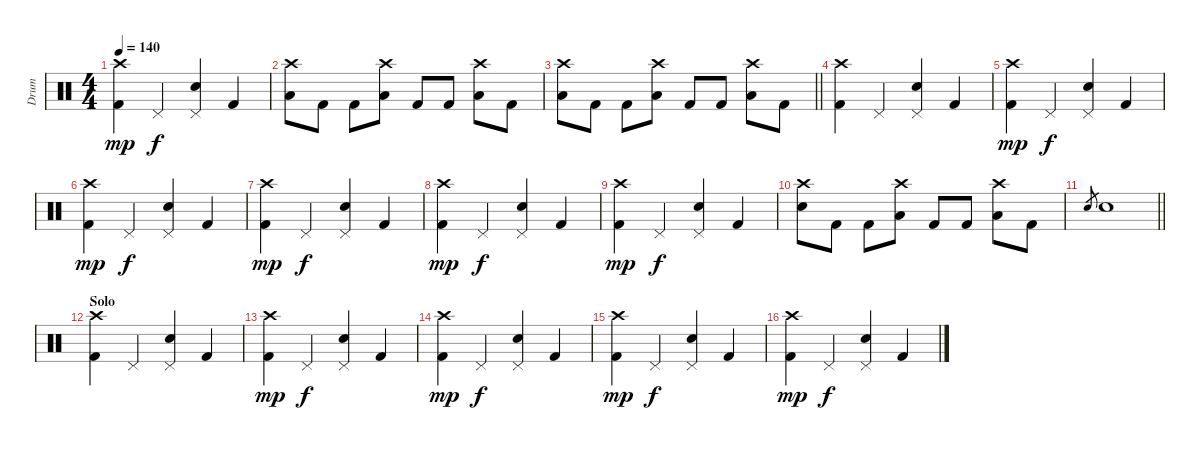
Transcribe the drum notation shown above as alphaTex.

\track ("Drum" "Drum") {instrument percussion}
\staff {score}
\articulation defaults
\ts (4 4)
\tempo 140
\clef neutral
\ks c
("Kick (hit) 2" "Crash high (hit)").4{dy mp} "Pedal Hi-Hat (hit)".4{dy f} ("Electric Snare (hit)" "Pedal Hi-Hat (hit)").4 "Kick (hit) 2".4 |
("Low Tom (hit)" "Crash high (hit)").8 "Kick (hit) 2".8 "Kick (hit) 2".8 ("Low Tom (hit)" "Crash high (hit)").8 "Kick (hit) 2".8 "Kick (hit) 2".8 ("Low Tom (hit)" "Crash high (hit)").8 "Kick (hit) 2".8 |
\barLineRight lightlight
("Low Tom (hit)" "Crash high (hit)").8 "Kick (hit) 2".8 "Kick (hit) 2".8 ("Low Tom (hit)" "Crash high (hit)").8 "Kick (hit) 2".8 "Kick (hit) 2".8 ("Low Tom (hit)" "Crash high (hit)").8 "Kick (hit) 2".8 |
("Kick (hit) 2" "Crash high (hit)").4 "Pedal Hi-Hat (hit)".4 ("Electric Snare (hit)" "Pedal Hi-Hat (hit)").4 "Kick (hit) 2".4 |
("Kick (hit) 2" "Crash high (hit)").4{dy mp} "Pedal Hi-Hat (hit)".4{dy f} ("Electric Snare (hit)" "Pedal Hi-Hat (hit)").4 "Kick (hit) 2".4 |
("Kick (hit) 2" "Crash high (hit)").4{dy mp} "Pedal Hi-Hat (hit)".4{dy f} ("Electric Snare (hit)" "Pedal Hi-Hat (hit)").4 "Kick (hit) 2".4 |
("Kick (hit) 2" "Crash high (hit)").4{dy mp} "Pedal Hi-Hat (hit)".4{dy f} ("Electric Snare (hit)" "Pedal Hi-Hat (hit)").4 "Kick (hit) 2".4 |
("Kick (hit) 2" "Crash high (hit)").4{dy mp} "Pedal Hi-Hat (hit)".4{dy f} ("Electric Snare (hit)" "Pedal Hi-Hat (hit)").4 "Kick (hit) 2".4 |
("Kick (hit) 2" "Crash high (hit)").4{dy mp} "Pedal Hi-Hat (hit)".4{dy f} ("Electric Snare (hit)" "Pedal Hi-Hat (hit)").4 "Kick (hit) 2".4 |
("Electric Snare (hit)" "Crash high (hit)").8 "Kick (hit) 2".8 "Kick (hit) 2".8 ("Low Tom (hit)" "Crash high (hit)").8 "Kick (hit) 2".8 "Kick (hit) 2".8 ("Low Tom (hit)" "Crash high (hit)").8 "Kick (hit) 2".8 |
\barLineRight lightlight "Electric Snare (hit)".8{gr} "Electric Snare (hit)".1
|
\section ("" "Solo")
("Kick (hit) 2" "Crash high (hit)").4 "Pedal Hi-Hat (hit)".4 ("Electric Snare (hit)" "Pedal Hi-Hat (hit)").4 "Kick (hit) 2".4 |
("Kick (hit) 2" "Crash high (hit)").4{dy mp} "Pedal Hi-Hat (hit)".4{dy f} ("Electric Snare (hit)" "Pedal Hi-Hat (hit)").4 "Kick (hit) 2".4 |
("Kick (hit) 2" "Crash high (hit)").4{dy mp} "Pedal Hi-Hat (hit)".4{dy f} ("Electric Snare (hit)" "Pedal Hi-Hat (hit)").4 "Kick (hit) 2".4 |
("Kick (hit) 2" "Crash high (hit)").4{dy mp} "Pedal Hi-Hat (hit)".4{dy f} ("Electric Snare (hit)" "Pedal Hi-Hat (hit)").4 "Kick (hit) 2".4 |
("Kick (hit) 2" "Crash high (hit)").4{dy mp} "Pedal Hi-Hat (hit)".4{dy f} ("Electric Snare (hit)" "Pedal Hi-Hat (hit)").4 "Kick (hit) 2".4
